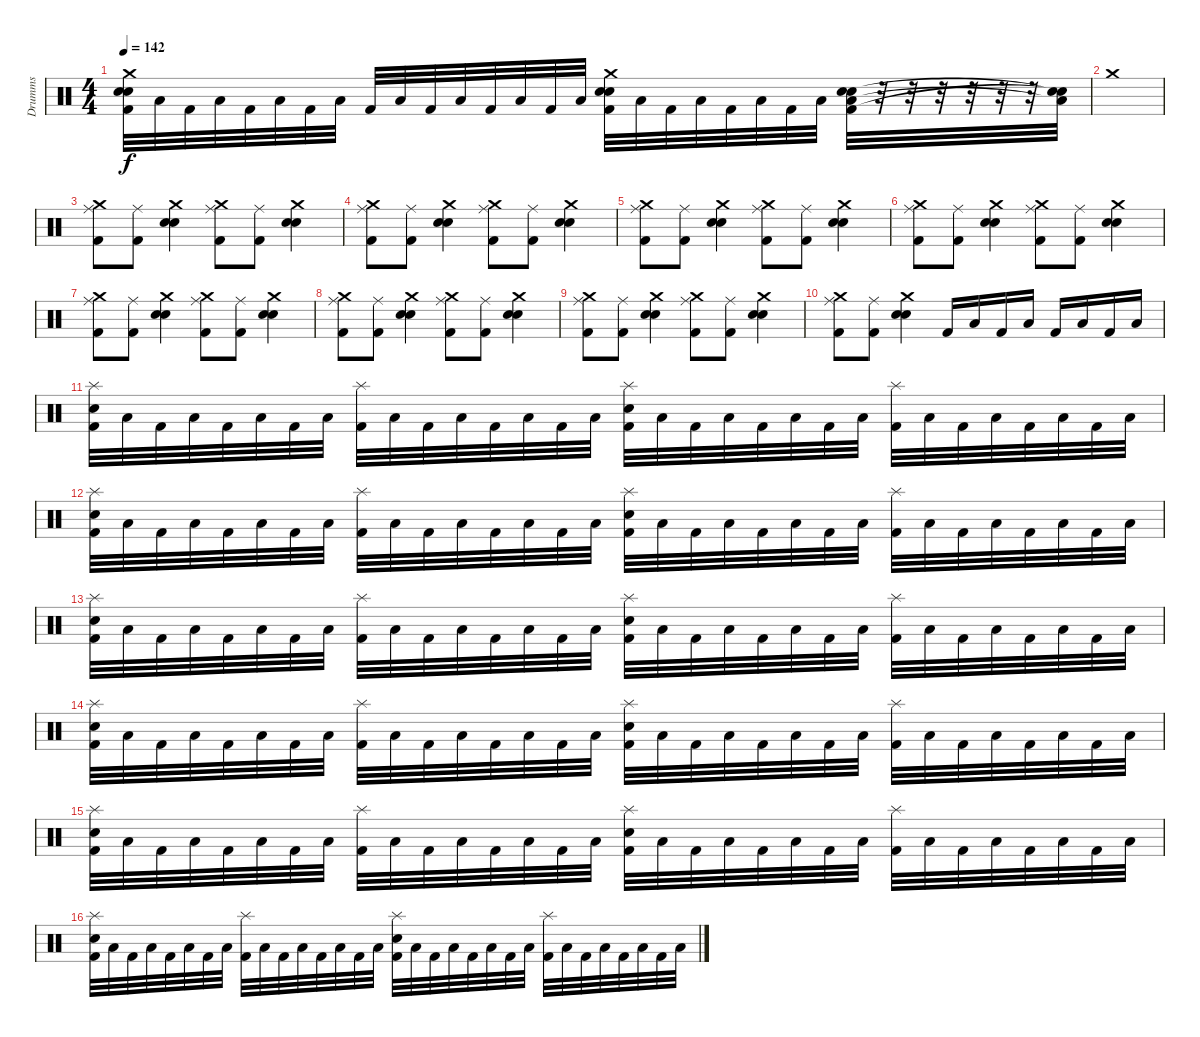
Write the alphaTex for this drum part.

\track ("Drumms" "Drumms") {instrument percussion}
\staff {score}
\articulation defaults
\ts (4 4)
\tempo 142
\clef neutral
\ks c
("Crash medium (hit)" "Snare (hit) 2" "Kick (hit) 2" "Electric Snare (hit)").32{dy f} "Low Floor Tom (hit)".32 "Kick (hit) 2".32 "Low Floor Tom (hit)".32 "Kick (hit) 2".32 "Low Floor Tom (hit)".32 "Kick (hit) 2".32 "Low Floor Tom (hit)".32 "Kick (hit) 2".32 "Low Floor Tom (hit)".32 "Kick (hit) 2".32 "Low Floor Tom (hit)".32 "Kick (hit) 2".32 "Low Floor Tom (hit)".32 "Kick (hit) 2".32 "Low Floor Tom (hit)".32 ("Crash medium (hit)" "Snare (hit) 2" "Kick (hit) 2" "Electric Snare (hit)").32 "Low Floor Tom (hit)".32 "Kick (hit) 2".32 "Low Floor Tom (hit)".32 "Kick (hit) 2".32 "Low Floor Tom (hit)".32 "Kick (hit) 2".32 "Low Floor Tom (hit)".32 ("Low Floor Tom (hit)" "Snare (hit) 2" "Kick (hit) 2" "Electric Snare (hit)").32 r.32 r.32 r.32 r.32 r.32 r.32 ("Low Floor Tom (hit)"{t} "Snare (hit)"{t} "Snare (hit)"{t}).32 |
"Crash medium (hit)".1 |
("Crash medium (hit)" "Ride (middle)" "Kick (hit) 2").8 ("Ride (middle)" "Kick (hit) 2").8 ("Crash medium (hit)" "Snare (hit) 2" "Electric Snare (hit)").4 ("Crash medium (hit)" "Ride (middle)" "Kick (hit) 2").8 ("Ride (middle)" "Kick (hit) 2").8 ("Crash medium (hit)" "Electric Snare (hit)" "Snare (hit) 2").4 |
("Crash medium (hit)" "Ride (middle)" "Kick (hit) 2").8 ("Ride (middle)" "Kick (hit) 2").8 ("Crash medium (hit)" "Snare (hit) 2" "Electric Snare (hit)").4 ("Crash medium (hit)" "Ride (middle)" "Kick (hit) 2").8 ("Ride (middle)" "Kick (hit) 2").8 ("Crash medium (hit)" "Electric Snare (hit)" "Snare (hit) 2").4 |
("Crash medium (hit)" "Ride (middle)" "Kick (hit) 2").8 ("Ride (middle)" "Kick (hit) 2").8 ("Crash medium (hit)" "Snare (hit) 2" "Electric Snare (hit)").4 ("Crash medium (hit)" "Ride (middle)" "Kick (hit) 2").8 ("Ride (middle)" "Kick (hit) 2").8 ("Crash medium (hit)" "Electric Snare (hit)" "Snare (hit) 2").4 |
("Crash medium (hit)" "Ride (middle)" "Kick (hit) 2").8 ("Ride (middle)" "Kick (hit) 2").8 ("Crash medium (hit)" "Snare (hit) 2" "Electric Snare (hit)").4 ("Crash medium (hit)" "Ride (middle)" "Kick (hit) 2").8 ("Ride (middle)" "Kick (hit) 2").8 ("Crash medium (hit)" "Electric Snare (hit)" "Snare (hit) 2").4 |
("Crash medium (hit)" "Ride (middle)" "Kick (hit) 2").8 ("Ride (middle)" "Kick (hit) 2").8 ("Crash medium (hit)" "Snare (hit) 2" "Electric Snare (hit)").4 ("Crash medium (hit)" "Ride (middle)" "Kick (hit) 2").8 ("Ride (middle)" "Kick (hit) 2").8 ("Crash medium (hit)" "Electric Snare (hit)" "Snare (hit) 2").4 |
("Crash medium (hit)" "Ride (middle)" "Kick (hit) 2").8 ("Ride (middle)" "Kick (hit) 2").8 ("Crash medium (hit)" "Snare (hit) 2" "Electric Snare (hit)").4 ("Crash medium (hit)" "Ride (middle)" "Kick (hit) 2").8 ("Ride (middle)" "Kick (hit) 2").8 ("Crash medium (hit)" "Electric Snare (hit)" "Snare (hit) 2").4 |
("Crash medium (hit)" "Ride (middle)" "Kick (hit) 2").8 ("Ride (middle)" "Kick (hit) 2").8 ("Crash medium (hit)" "Snare (hit) 2" "Electric Snare (hit)").4 ("Crash medium (hit)" "Ride (middle)" "Kick (hit) 2").8 ("Ride (middle)" "Kick (hit) 2").8 ("Crash medium (hit)" "Electric Snare (hit)" "Snare (hit) 2").4 |
("Crash medium (hit)" "Ride (middle)" "Kick (hit) 2").8 ("Ride (middle)" "Kick (hit) 2").8 ("Crash medium (hit)" "Snare (hit) 2" "Electric Snare (hit)").4 "Kick (hit) 2".16 "Low Floor Tom (hit)".16 "Kick (hit) 2".16 "Low Floor Tom (hit)".16 "Kick (hit) 2".16 "Low Floor Tom (hit)".16 "Kick (hit) 2".16 "Low Floor Tom (hit)".16 |
("Splash (hit)" "Kick (hit) 2" "Electric Snare (hit)").32 "Low Floor Tom (hit)".32 "Kick (hit) 2".32 "Low Floor Tom (hit)".32 "Kick (hit) 2".32 "Low Floor Tom (hit)".32 "Kick (hit) 2".32 "Low Floor Tom (hit)".32 ("Splash (hit)" "Kick (hit) 2").32 "Low Floor Tom (hit)".32 "Kick (hit) 2".32 "Low Floor Tom (hit)".32 "Kick (hit) 2".32 "Low Floor Tom (hit)".32 "Kick (hit) 2".32 "Low Floor Tom (hit)".32 ("Splash (hit)" "Kick (hit) 2" "Electric Snare (hit)").32 "Low Floor Tom (hit)".32 "Kick (hit) 2".32 "Low Floor Tom (hit)".32 "Kick (hit) 2".32 "Low Floor Tom (hit)".32 "Kick (hit) 2".32 "Low Floor Tom (hit)".32 ("Splash (hit)" "Kick (hit) 2").32 "Low Floor Tom (hit)".32 "Kick (hit) 2".32 "Low Floor Tom (hit)".32 "Kick (hit) 2".32 "Low Floor Tom (hit)".32 "Kick (hit) 2".32 "Low Floor Tom (hit)".32 |
("Splash (hit)" "Kick (hit) 2" "Electric Snare (hit)").32 "Low Floor Tom (hit)".32 "Kick (hit) 2".32 "Low Floor Tom (hit)".32 "Kick (hit) 2".32 "Low Floor Tom (hit)".32 "Kick (hit) 2".32 "Low Floor Tom (hit)".32 ("Splash (hit)" "Kick (hit) 2").32 "Low Floor Tom (hit)".32 "Kick (hit) 2".32 "Low Floor Tom (hit)".32 "Kick (hit) 2".32 "Low Floor Tom (hit)".32 "Kick (hit) 2".32 "Low Floor Tom (hit)".32 ("Splash (hit)" "Kick (hit) 2" "Electric Snare (hit)").32 "Low Floor Tom (hit)".32 "Kick (hit) 2".32 "Low Floor Tom (hit)".32 "Kick (hit) 2".32 "Low Floor Tom (hit)".32 "Kick (hit) 2".32 "Low Floor Tom (hit)".32 ("Splash (hit)" "Kick (hit) 2").32 "Low Floor Tom (hit)".32 "Kick (hit) 2".32 "Low Floor Tom (hit)".32 "Kick (hit) 2".32 "Low Floor Tom (hit)".32 "Kick (hit) 2".32 "Low Floor Tom (hit)".32 |
("Splash (hit)" "Kick (hit) 2" "Electric Snare (hit)").32 "Low Floor Tom (hit)".32 "Kick (hit) 2".32 "Low Floor Tom (hit)".32 "Kick (hit) 2".32 "Low Floor Tom (hit)".32 "Kick (hit) 2".32 "Low Floor Tom (hit)".32 ("Splash (hit)" "Kick (hit) 2").32 "Low Floor Tom (hit)".32 "Kick (hit) 2".32 "Low Floor Tom (hit)".32 "Kick (hit) 2".32 "Low Floor Tom (hit)".32 "Kick (hit) 2".32 "Low Floor Tom (hit)".32 ("Splash (hit)" "Kick (hit) 2" "Electric Snare (hit)").32 "Low Floor Tom (hit)".32 "Kick (hit) 2".32 "Low Floor Tom (hit)".32 "Kick (hit) 2".32 "Low Floor Tom (hit)".32 "Kick (hit) 2".32 "Low Floor Tom (hit)".32 ("Splash (hit)" "Kick (hit) 2").32 "Low Floor Tom (hit)".32 "Kick (hit) 2".32 "Low Floor Tom (hit)".32 "Kick (hit) 2".32 "Low Floor Tom (hit)".32 "Kick (hit) 2".32 "Low Floor Tom (hit)".32 |
("Splash (hit)" "Kick (hit) 2" "Electric Snare (hit)").32 "Low Floor Tom (hit)".32 "Kick (hit) 2".32 "Low Floor Tom (hit)".32 "Kick (hit) 2".32 "Low Floor Tom (hit)".32 "Kick (hit) 2".32 "Low Floor Tom (hit)".32 ("Splash (hit)" "Kick (hit) 2").32 "Low Floor Tom (hit)".32 "Kick (hit) 2".32 "Low Floor Tom (hit)".32 "Kick (hit) 2".32 "Low Floor Tom (hit)".32 "Kick (hit) 2".32 "Low Floor Tom (hit)".32 ("Splash (hit)" "Kick (hit) 2" "Electric Snare (hit)").32 "Low Floor Tom (hit)".32 "Kick (hit) 2".32 "Low Floor Tom (hit)".32 "Kick (hit) 2".32 "Low Floor Tom (hit)".32 "Kick (hit) 2".32 "Low Floor Tom (hit)".32 ("Splash (hit)" "Kick (hit) 2").32 "Low Floor Tom (hit)".32 "Kick (hit) 2".32 "Low Floor Tom (hit)".32 "Kick (hit) 2".32 "Low Floor Tom (hit)".32 "Kick (hit) 2".32 "Low Floor Tom (hit)".32 |
("Splash (hit)" "Kick (hit) 2" "Electric Snare (hit)").32 "Low Floor Tom (hit)".32 "Kick (hit) 2".32 "Low Floor Tom (hit)".32 "Kick (hit) 2".32 "Low Floor Tom (hit)".32 "Kick (hit) 2".32 "Low Floor Tom (hit)".32 ("Splash (hit)" "Kick (hit) 2").32 "Low Floor Tom (hit)".32 "Kick (hit) 2".32 "Low Floor Tom (hit)".32 "Kick (hit) 2".32 "Low Floor Tom (hit)".32 "Kick (hit) 2".32 "Low Floor Tom (hit)".32 ("Splash (hit)" "Kick (hit) 2" "Electric Snare (hit)").32 "Low Floor Tom (hit)".32 "Kick (hit) 2".32 "Low Floor Tom (hit)".32 "Kick (hit) 2".32 "Low Floor Tom (hit)".32 "Kick (hit) 2".32 "Low Floor Tom (hit)".32 ("Splash (hit)" "Kick (hit) 2").32 "Low Floor Tom (hit)".32 "Kick (hit) 2".32 "Low Floor Tom (hit)".32 "Kick (hit) 2".32 "Low Floor Tom (hit)".32 "Kick (hit) 2".32 "Low Floor Tom (hit)".32 |
("Splash (hit)" "Kick (hit) 2" "Electric Snare (hit)").32 "Low Floor Tom (hit)".32 "Kick (hit) 2".32 "Low Floor Tom (hit)".32 "Kick (hit) 2".32 "Low Floor Tom (hit)".32 "Kick (hit) 2".32 "Low Floor Tom (hit)".32 ("Splash (hit)" "Kick (hit) 2").32 "Low Floor Tom (hit)".32 "Kick (hit) 2".32 "Low Floor Tom (hit)".32 "Kick (hit) 2".32 "Low Floor Tom (hit)".32 "Kick (hit) 2".32 "Low Floor Tom (hit)".32 ("Splash (hit)" "Kick (hit) 2" "Electric Snare (hit)").32 "Low Floor Tom (hit)".32 "Kick (hit) 2".32 "Low Floor Tom (hit)".32 "Kick (hit) 2".32 "Low Floor Tom (hit)".32 "Kick (hit) 2".32 "Low Floor Tom (hit)".32 ("Splash (hit)" "Kick (hit) 2").32 "Low Floor Tom (hit)".32 "Kick (hit) 2".32 "Low Floor Tom (hit)".32 "Kick (hit) 2".32 "Low Floor Tom (hit)".32 "Kick (hit) 2".32 "Low Floor Tom (hit)".32
